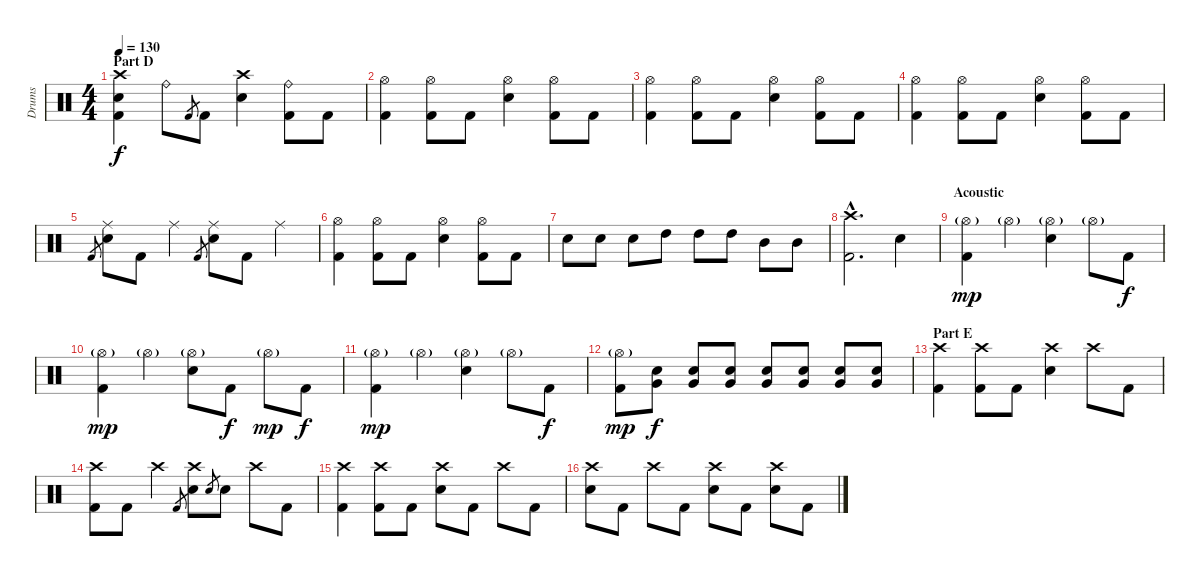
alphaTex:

\track ("Drums" "Drums") {instrument percussion}
\staff {score}
\articulation defaults
\ts (4 4)
\section ("" "Part D")
\tempo 130
\clef neutral
\ks c
("Crash high (hit)" "Electric Snare (hit)" "Kick (hit) 2").4{dy f} "Ride (bell)".8 "Kick (hit) 2".8{gr} "Kick (hit) 2".8 ("Crash high (hit)" "Electric Snare (hit)").4 ("Ride (bell)" "Kick (hit) 2").8 "Kick (hit) 2".8 |
("Hi-Hat (open)" "Kick (hit) 2").4 ("Hi-Hat (open)" "Kick (hit) 2").8 "Kick (hit) 2".8 ("Hi-Hat (open)" "Electric Snare (hit)").4 ("Hi-Hat (open)" "Kick (hit) 2").8 "Kick (hit) 2".8 |
("Hi-Hat (open)" "Kick (hit) 2").4 ("Hi-Hat (open)" "Kick (hit) 2").8 "Kick (hit) 2".8 ("Hi-Hat (open)" "Electric Snare (hit)").4 ("Hi-Hat (open)" "Kick (hit) 2").8 "Kick (hit) 2".8 |
("Hi-Hat (open)" "Kick (hit) 2").4 ("Hi-Hat (open)" "Kick (hit) 2").8 "Kick (hit) 2".8 ("Hi-Hat (open)" "Electric Snare (hit)").4 ("Hi-Hat (open)" "Kick (hit) 2").8 "Kick (hit) 2".8 |
"Kick (hit) 2".8{gr} ("Ride (middle)" "Electric Snare (hit)").8 "Kick (hit) 2".8 "Ride (middle)".4 "Kick (hit) 2".8{gr} ("Ride (middle)" "Electric Snare (hit)").8 "Kick (hit) 2".8 "Ride (middle)".4 |
("Hi-Hat (open)" "Kick (hit) 2").4 ("Hi-Hat (open)" "Kick (hit) 2").8 "Kick (hit) 2".8 ("Hi-Hat (open)" "Electric Snare (hit)").4 ("Hi-Hat (open)" "Kick (hit) 2").8 "Kick (hit) 2".8 |
"Electric Snare (hit)".8 "Electric Snare (hit)".8 "Electric Snare (hit)".8 "High Tom (hit)".8 "High Tom (hit)".8 "High Tom (hit)".8 "Mid Tom (hit)".8 "Mid Tom (hit)".8 |
("Crash high (hit)"{hac} "Kick (hit) 2"{hac}).2{d} "Electric Snare (hit)".4 |
\section ("" "Acoustic")
("Hi-Hat (open)"{g} "Kick (hit) 2").4{dy mp} "Hi-Hat (open)"{g}.4 ("Hi-Hat (open)"{g} "Electric Snare (hit)").4 "Hi-Hat (open)"{g}.8 "Kick (hit) 2".8{dy f} |
("Hi-Hat (open)"{g} "Kick (hit) 2").4{dy mp} "Hi-Hat (open)"{g}.4 ("Hi-Hat (open)"{g} "Electric Snare (hit)").8 "Kick (hit) 2".8{dy f} "Hi-Hat (open)"{g}.8{dy mp} "Kick (hit) 2".8{dy f} |
("Hi-Hat (open)"{g} "Kick (hit) 2").4{dy mp} "Hi-Hat (open)"{g}.4 ("Hi-Hat (open)"{g} "Electric Snare (hit)").4 "Hi-Hat (open)"{g}.8 "Kick (hit) 2".8{dy f} |
("Hi-Hat (open)"{g} "Kick (hit) 2").8{dy mp} ("Electric Snare (hit)" "Very Low Tom (hit)").8{dy f} ("Electric Snare (hit)" "Very Low Tom (hit)").8 ("Electric Snare (hit)" "Very Low Tom (hit)").8 ("Electric Snare (hit)" "Very Low Tom (hit)").8 ("Electric Snare (hit)" "Very Low Tom (hit)").8 ("Electric Snare (hit)" "Very Low Tom (hit)").8 ("Electric Snare (hit)" "Very Low Tom (hit)").8 |
\section ("" "Part E")
("Crash high (hit)" "Kick (hit) 2").4 ("Crash high (hit)" "Kick (hit) 2").8 "Kick (hit) 2".8 ("Crash high (hit)" "Electric Snare (hit)").4 "Crash high (hit)".8 "Kick (hit) 2".8 |
("Crash high (hit)" "Kick (hit) 2").8 "Kick (hit) 2".8 "Crash high (hit)".4 "Kick (hit) 2".8{gr} ("Crash high (hit)" "Electric Snare (hit)").8 "Electric Snare (hit)".8{gr} "Electric Snare (hit)".8 "Crash high (hit)".8 "Kick (hit) 2".8 |
("Crash high (hit)" "Kick (hit) 2").4 ("Crash high (hit)" "Kick (hit) 2").8 "Kick (hit) 2".8 ("Crash high (hit)" "Electric Snare (hit)").8 "Kick (hit) 2".8 "Crash high (hit)".8 "Kick (hit) 2".8 |
("Crash high (hit)" "Electric Snare (hit)").8 "Kick (hit) 2".8 "Crash high (hit)".8 "Kick (hit) 2".8 ("Crash high (hit)" "Electric Snare (hit)").8 "Kick (hit) 2".8 ("Crash high (hit)" "Electric Snare (hit)").8 "Kick (hit) 2".8
